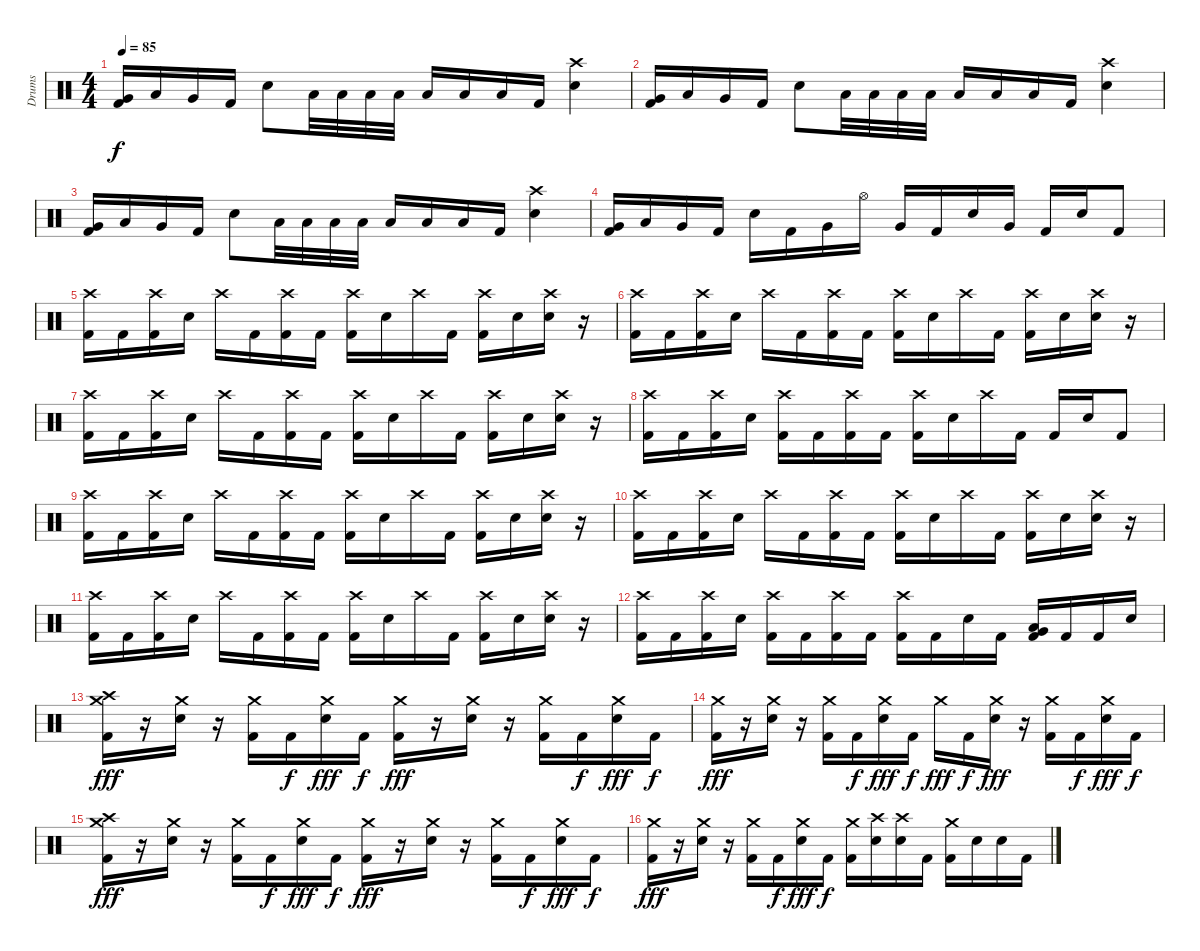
\track ("Drums" "Drums") {instrument percussion}
\staff {score}
\articulation defaults
\ts (4 4)
\tempo 85
\clef neutral
\ks c
("Very Low Tom (hit)" "Kick (hit) 2").16{dy f} "Low Tom (hit)".16 "Very Low Tom (hit)".16 "Kick (hit) 2".16 "Electric Snare (hit)".8 "Low Tom (hit)".32 "Low Tom (hit)".32 "Low Tom (hit)".32 "Low Tom (hit)".32 "Low Tom (hit)".16 "Low Tom (hit)".16 "Low Floor Tom (hit)".16 "Kick (hit) 2".16 ("Crash high (hit)" "Electric Snare (hit)").4 |
("Very Low Tom (hit)" "Kick (hit) 2").16 "Low Tom (hit)".16 "Very Low Tom (hit)".16 "Kick (hit) 2".16 "Electric Snare (hit)".8 "Low Tom (hit)".32 "Low Tom (hit)".32 "Low Tom (hit)".32 "Low Tom (hit)".32 "Low Tom (hit)".16 "Low Tom (hit)".16 "Low Floor Tom (hit)".16 "Kick (hit) 2".16 ("Crash high (hit)" "Electric Snare (hit)").4 |
("Very Low Tom (hit)" "Kick (hit) 2").16 "Low Tom (hit)".16 "Very Low Tom (hit)".16 "Kick (hit) 2".16 "Electric Snare (hit)".8 "Low Tom (hit)".32 "Low Tom (hit)".32 "Low Tom (hit)".32 "Low Tom (hit)".32 "Low Tom (hit)".16 "Low Tom (hit)".16 "Low Floor Tom (hit)".16 "Kick (hit) 2".16 ("Crash high (hit)" "Electric Snare (hit)").4 |
("Very Low Tom (hit)" "Kick (hit) 2").16 "Low Tom (hit)".16 "Very Low Tom (hit)".16 "Kick (hit) 2".16 "Electric Snare (hit)".16 "Kick (hit) 2".16 "Very Low Tom (hit)".16 "Hi-Hat (open)".16 "Very Low Tom (hit)".16 "Kick (hit) 2".16 "Electric Snare (hit)".16 "Very Low Tom (hit)".16 "Kick (hit) 2".16 "Electric Snare (hit)".16 "Kick (hit) 2".8 |
("Crash high (hit)" "Kick (hit) 2").16 "Kick (hit) 2".16 ("Crash high (hit)" "Kick (hit) 2").16 "Electric Snare (hit)".16 "Crash high (hit)".16 "Kick (hit) 2".16 ("Crash high (hit)" "Kick (hit) 2").16 "Kick (hit) 2".16 ("Crash high (hit)" "Kick (hit) 2").16 "Electric Snare (hit)".16 "Crash high (hit)".16 "Kick (hit) 2".16 ("Crash high (hit)" "Kick (hit) 2").16 "Electric Snare (hit)".16 ("Crash high (hit)" "Electric Snare (hit)").16 r.16 |
("Crash high (hit)" "Kick (hit) 2").16 "Kick (hit) 2".16 ("Crash high (hit)" "Kick (hit) 2").16 "Electric Snare (hit)".16 "Crash high (hit)".16 "Kick (hit) 2".16 ("Crash high (hit)" "Kick (hit) 2").16 "Kick (hit) 2".16 ("Crash high (hit)" "Kick (hit) 2").16 "Electric Snare (hit)".16 "Crash high (hit)".16 "Kick (hit) 2".16 ("Crash high (hit)" "Kick (hit) 2").16 "Electric Snare (hit)".16 ("Crash high (hit)" "Electric Snare (hit)").16 r.16 |
("Crash high (hit)" "Kick (hit) 2").16 "Kick (hit) 2".16 ("Crash high (hit)" "Kick (hit) 2").16 "Electric Snare (hit)".16 "Crash high (hit)".16 "Kick (hit) 2".16 ("Crash high (hit)" "Kick (hit) 2").16 "Kick (hit) 2".16 ("Crash high (hit)" "Kick (hit) 2").16 "Electric Snare (hit)".16 "Crash high (hit)".16 "Kick (hit) 2".16 ("Crash high (hit)" "Kick (hit) 2").16 "Electric Snare (hit)".16 ("Crash high (hit)" "Electric Snare (hit)").16 r.16 |
("Crash high (hit)" "Kick (hit) 2").16 "Kick (hit) 2".16 ("Crash high (hit)" "Kick (hit) 2").16 "Electric Snare (hit)".16 ("Crash high (hit)" "Kick (hit) 2").16 "Kick (hit) 2".16 ("Crash high (hit)" "Kick (hit) 2").16 "Kick (hit) 2".16 ("Crash high (hit)" "Kick (hit) 2").16 "Electric Snare (hit)".16 "Crash high (hit)".16 "Kick (hit) 2".16 "Kick (hit) 2".16 "Electric Snare (hit)".16 "Kick (hit) 2".8 |
("Crash high (hit)" "Kick (hit) 2").16 "Kick (hit) 2".16 ("Crash high (hit)" "Kick (hit) 2").16 "Electric Snare (hit)".16 "Crash high (hit)".16 "Kick (hit) 2".16 ("Crash high (hit)" "Kick (hit) 2").16 "Kick (hit) 2".16 ("Crash high (hit)" "Kick (hit) 2").16 "Electric Snare (hit)".16 "Crash high (hit)".16 "Kick (hit) 2".16 ("Crash high (hit)" "Kick (hit) 2").16 "Electric Snare (hit)".16 ("Crash high (hit)" "Electric Snare (hit)").16 r.16 |
("Crash high (hit)" "Kick (hit) 2").16 "Kick (hit) 2".16 ("Crash high (hit)" "Kick (hit) 2").16 "Electric Snare (hit)".16 "Crash high (hit)".16 "Kick (hit) 2".16 ("Crash high (hit)" "Kick (hit) 2").16 "Kick (hit) 2".16 ("Crash high (hit)" "Kick (hit) 2").16 "Electric Snare (hit)".16 "Crash high (hit)".16 "Kick (hit) 2".16 ("Crash high (hit)" "Kick (hit) 2").16 "Electric Snare (hit)".16 ("Crash high (hit)" "Electric Snare (hit)").16 r.16 |
("Crash high (hit)" "Kick (hit) 2").16 "Kick (hit) 2".16 ("Crash high (hit)" "Kick (hit) 2").16 "Electric Snare (hit)".16 "Crash high (hit)".16 "Kick (hit) 2".16 ("Crash high (hit)" "Kick (hit) 2").16 "Kick (hit) 2".16 ("Crash high (hit)" "Kick (hit) 2").16 "Electric Snare (hit)".16 "Crash high (hit)".16 "Kick (hit) 2".16 ("Crash high (hit)" "Kick (hit) 2").16 "Electric Snare (hit)".16 ("Crash high (hit)" "Electric Snare (hit)").16 r.16 |
("Crash high (hit)" "Kick (hit) 2").16 "Kick (hit) 2".16 ("Crash high (hit)" "Kick (hit) 2").16 "Electric Snare (hit)".16 ("Crash high (hit)" "Kick (hit) 2").16 "Kick (hit) 2".16 ("Crash high (hit)" "Kick (hit) 2").16 "Kick (hit) 2".16 ("Crash high (hit)" "Kick (hit) 2").16 "Kick (hit) 2".16 "Electric Snare (hit)".16 "Kick (hit) 2".16 ("Low Tom (hit)" "Very Low Tom (hit)" "Kick (hit) 2").16 "Kick (hit) 2".16 "Kick (hit) 2".16 "Electric Snare (hit)".16 |
("Crash medium (hit)" "Crash high (hit)" "Kick (hit) 2").16{dy fff} r.16 ("Crash medium (hit)" "Electric Snare (hit)").16 r.16 ("Crash medium (hit)" "Kick (hit) 2").16 "Kick (hit) 2".16{dy f} ("Crash medium (hit)" "Electric Snare (hit)").16{dy fff} "Kick (hit) 2".16{dy f} ("Crash medium (hit)" "Kick (hit) 2").16{dy fff} r.16 ("Crash medium (hit)" "Electric Snare (hit)").16 r.16 ("Crash medium (hit)" "Kick (hit) 2").16 "Kick (hit) 2".16{dy f} ("Crash medium (hit)" "Electric Snare (hit)").16{dy fff} "Kick (hit) 2".16{dy f} |
("Crash medium (hit)" "Kick (hit) 2").16{dy fff} r.16 ("Crash medium (hit)" "Electric Snare (hit)").16 r.16 ("Crash medium (hit)" "Kick (hit) 2").16 "Kick (hit) 2".16{dy f} ("Crash medium (hit)" "Electric Snare (hit)").16{dy fff} "Kick (hit) 2".16{dy f} "Crash medium (hit)".16{dy fff} "Kick (hit) 2".16{dy f} ("Crash medium (hit)" "Electric Snare (hit)").16{dy fff} r.16 ("Crash medium (hit)" "Kick (hit) 2").16 "Kick (hit) 2".16{dy f} ("Crash medium (hit)" "Electric Snare (hit)").16{dy fff} "Kick (hit) 2".16{dy f} |
("Crash medium (hit)" "Crash high (hit)" "Kick (hit) 2").16{dy fff} r.16 ("Crash medium (hit)" "Electric Snare (hit)").16 r.16 ("Crash medium (hit)" "Kick (hit) 2").16 "Kick (hit) 2".16{dy f} ("Crash medium (hit)" "Electric Snare (hit)").16{dy fff} "Kick (hit) 2".16{dy f} ("Crash medium (hit)" "Kick (hit) 2").16{dy fff} r.16 ("Crash medium (hit)" "Electric Snare (hit)").16 r.16 ("Crash medium (hit)" "Kick (hit) 2").16 "Kick (hit) 2".16{dy f} ("Crash medium (hit)" "Electric Snare (hit)").16{dy fff} "Kick (hit) 2".16{dy f} |
("Crash medium (hit)" "Kick (hit) 2").16{dy fff} r.16 ("Crash medium (hit)" "Electric Snare (hit)").16 r.16 ("Crash medium (hit)" "Kick (hit) 2").16 "Kick (hit) 2".16{dy f} ("Crash medium (hit)" "Electric Snare (hit)").16{dy fff} "Kick (hit) 2".16{dy f} ("Crash medium (hit)" "Kick (hit) 2").16 ("Crash high (hit)" "Electric Snare (hit)").16 ("Crash high (hit)" "Electric Snare (hit)").16 "Kick (hit) 2".16 ("Crash medium (hit)" "Kick (hit) 2").16 "Electric Snare (hit)".16 "Electric Snare (hit)".16 "Kick (hit) 2".16
